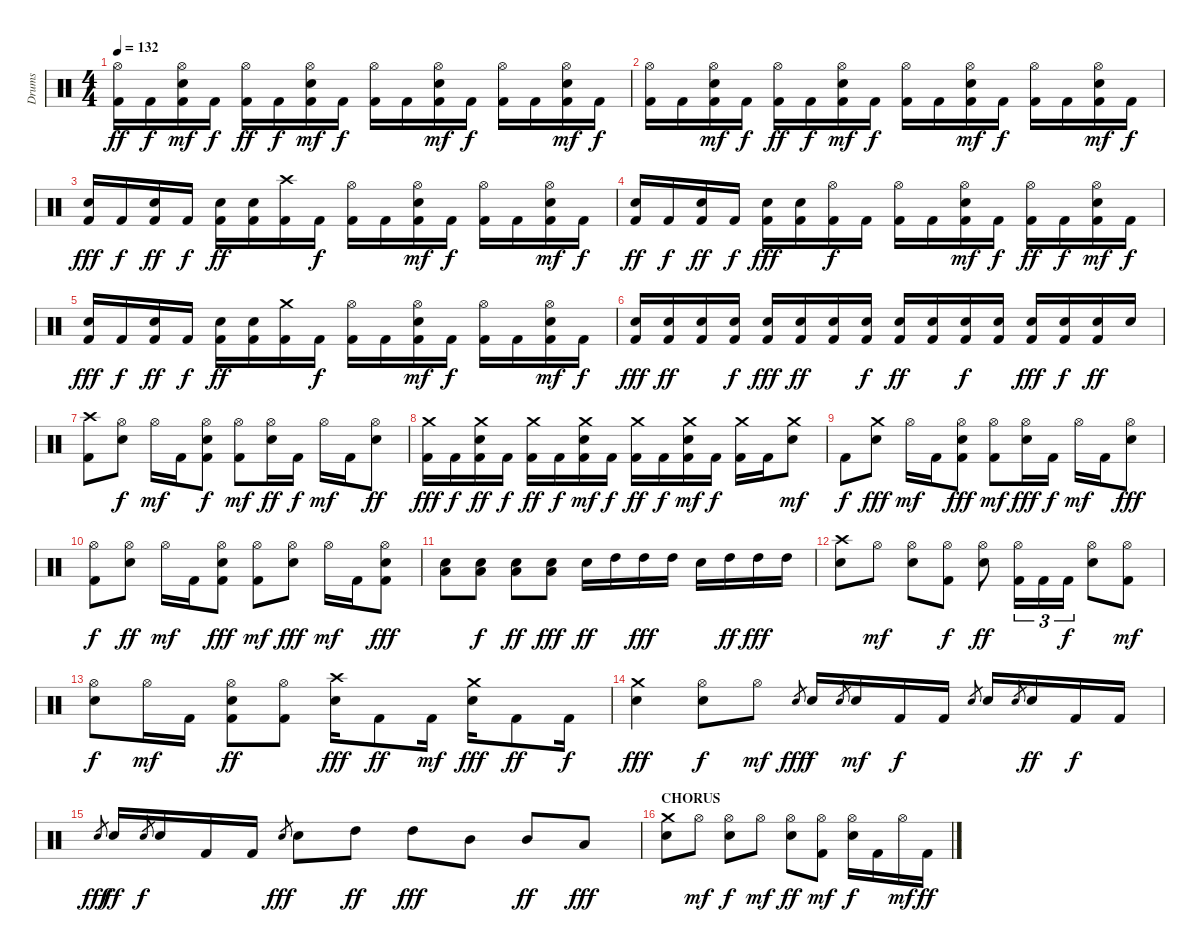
\track ("Drums" "Drums") {instrument percussion}
\staff {score}
\articulation defaults
\ts (4 4)
\tempo 132
\clef neutral
\ks c
("Hi-Hat (open)" "Kick (hit) 2").16{dy ff} "Kick (hit) 2".16{dy f} ("Hi-Hat (open)" "Electric Snare (hit)" "Kick (hit) 2").16{dy mf} "Kick (hit) 2".16{dy f} ("Hi-Hat (open)" "Kick (hit) 2").16{dy ff} "Kick (hit) 2".16{dy f} ("Hi-Hat (open)" "Electric Snare (hit)" "Kick (hit) 2").16{dy mf} "Kick (hit) 2".16{dy f} ("Hi-Hat (open)" "Kick (hit) 2").16 "Kick (hit) 2".16 ("Hi-Hat (open)" "Electric Snare (hit)" "Kick (hit) 2").16{dy mf} "Kick (hit) 2".16{dy f} ("Hi-Hat (open)" "Kick (hit) 2").16 "Kick (hit) 2".16 ("Hi-Hat (open)" "Electric Snare (hit)" "Kick (hit) 2").16{dy mf} "Kick (hit) 2".16{dy f} |
("Hi-Hat (open)" "Kick (hit) 2").16 "Kick (hit) 2".16 ("Hi-Hat (open)" "Electric Snare (hit)" "Kick (hit) 2").16{dy mf} "Kick (hit) 2".16{dy f} ("Hi-Hat (open)" "Kick (hit) 2").16{dy ff} "Kick (hit) 2".16{dy f} ("Hi-Hat (open)" "Electric Snare (hit)" "Kick (hit) 2").16{dy mf} "Kick (hit) 2".16{dy f} ("Hi-Hat (open)" "Kick (hit) 2").16 "Kick (hit) 2".16 ("Hi-Hat (open)" "Electric Snare (hit)" "Kick (hit) 2").16{dy mf} "Kick (hit) 2".16{dy f} ("Hi-Hat (open)" "Kick (hit) 2").16 "Kick (hit) 2".16 ("Hi-Hat (open)" "Electric Snare (hit)" "Kick (hit) 2").16{dy mf} "Kick (hit) 2".16{dy f} |
("Electric Snare (hit)" "Kick (hit) 2").16{dy fff} "Kick (hit) 2".16{dy f} ("Electric Snare (hit)" "Kick (hit) 2").16{dy ff} "Kick (hit) 2".16{dy f} ("Electric Snare (hit)" "Kick (hit) 2").16{dy ff} ("Electric Snare (hit)" "Kick (hit) 2").16 ("Crash high (hit)" "Kick (hit) 2").16 "Kick (hit) 2".16{dy f} ("Hi-Hat (open)" "Kick (hit) 2").16 "Kick (hit) 2".16 ("Hi-Hat (open)" "Electric Snare (hit)" "Kick (hit) 2").16{dy mf} "Kick (hit) 2".16{dy f} ("Hi-Hat (open)" "Kick (hit) 2").16 "Kick (hit) 2".16 ("Hi-Hat (open)" "Electric Snare (hit)" "Kick (hit) 2").16{dy mf} "Kick (hit) 2".16{dy f} |
("Electric Snare (hit)" "Kick (hit) 2").16{dy ff} "Kick (hit) 2".16{dy f} ("Electric Snare (hit)" "Kick (hit) 2").16{dy ff} "Kick (hit) 2".16{dy f} ("Electric Snare (hit)" "Kick (hit) 2").16{dy fff} ("Electric Snare (hit)" "Kick (hit) 2").16 ("Hi-Hat (open)" "Kick (hit) 2").16{dy f} "Kick (hit) 2".16 ("Hi-Hat (open)" "Kick (hit) 2").16 "Kick (hit) 2".16 ("Hi-Hat (open)" "Electric Snare (hit)" "Kick (hit) 2").16{dy mf} "Kick (hit) 2".16{dy f} ("Hi-Hat (open)" "Kick (hit) 2").16{dy ff} "Kick (hit) 2".16{dy f} ("Hi-Hat (open)" "Electric Snare (hit)" "Kick (hit) 2").16{dy mf} "Kick (hit) 2".16{dy f} |
("Electric Snare (hit)" "Kick (hit) 2").16{dy fff} "Kick (hit) 2".16{dy f} ("Electric Snare (hit)" "Kick (hit) 2").16{dy ff} "Kick (hit) 2".16{dy f} ("Electric Snare (hit)" "Kick (hit) 2").16{dy ff} ("Electric Snare (hit)" "Kick (hit) 2").16 ("Crash medium (hit)" "Kick (hit) 2").16 "Kick (hit) 2".16{dy f} ("Hi-Hat (open)" "Kick (hit) 2").16 "Kick (hit) 2".16 ("Hi-Hat (open)" "Electric Snare (hit)" "Kick (hit) 2").16{dy mf} "Kick (hit) 2".16{dy f} ("Hi-Hat (open)" "Kick (hit) 2").16 "Kick (hit) 2".16 ("Hi-Hat (open)" "Electric Snare (hit)" "Kick (hit) 2").16{dy mf} "Kick (hit) 2".16{dy f} |
("Electric Snare (hit)" "Kick (hit) 2").16{dy fff} ("Electric Snare (hit)" "Kick (hit) 2").16{dy ff} ("Electric Snare (hit)" "Kick (hit) 2").16 ("Electric Snare (hit)" "Kick (hit) 2").16{dy f} ("Electric Snare (hit)" "Kick (hit) 2").16{dy fff} ("Electric Snare (hit)" "Kick (hit) 2").16{dy ff} ("Electric Snare (hit)" "Kick (hit) 2").16 ("Electric Snare (hit)" "Kick (hit) 2").16{dy f} ("Electric Snare (hit)" "Kick (hit) 2").16{dy ff} ("Electric Snare (hit)" "Kick (hit) 2").16 ("Electric Snare (hit)" "Kick (hit) 2").16{dy f} ("Electric Snare (hit)" "Kick (hit) 2").16 ("Electric Snare (hit)" "Kick (hit) 2").16{dy fff} ("Electric Snare (hit)" "Kick (hit) 2").16{dy f} ("Electric Snare (hit)" "Kick (hit) 2").16{dy ff} "Electric Snare (hit)".16 |
("Crash high (hit)" "Kick (hit) 2").8 ("Hi-Hat (open)" "Electric Snare (hit)").8{dy f} "Hi-Hat (open)".16{dy mf} "Kick (hit) 2".16 ("Hi-Hat (open)" "Electric Snare (hit)" "Kick (hit) 2").8{dy f} ("Hi-Hat (open)" "Kick (hit) 2").8{dy mf} ("Hi-Hat (open)" "Electric Snare (hit)").16{dy ff} "Kick (hit) 2".16{dy f} "Hi-Hat (open)".16{dy mf} "Kick (hit) 2".16 ("Hi-Hat (open)" "Electric Snare (hit)").8{dy ff} |
("Crash medium (hit)" "Kick (hit) 2").16{dy fff} "Kick (hit) 2".16{dy f} ("Crash medium (hit)" "Electric Snare (hit)" "Kick (hit) 2").16{dy ff} "Kick (hit) 2".16{dy f} ("Crash medium (hit)" "Kick (hit) 2").16{dy ff} "Kick (hit) 2".16{dy f} ("Crash medium (hit)" "Electric Snare (hit)" "Kick (hit) 2").16{dy mf} "Kick (hit) 2".16{dy f} ("Crash medium (hit)" "Kick (hit) 2").16{dy ff} "Kick (hit) 2".16{dy f} ("Crash medium (hit)" "Electric Snare (hit)" "Kick (hit) 2").16{dy mf} "Kick (hit) 2".16{dy f} ("Crash medium (hit)" "Kick (hit) 2").16 "Kick (hit) 2".16 ("Crash medium (hit)" "Electric Snare (hit)").8{dy mf} |
"Kick (hit) 2".8{dy f} ("Crash medium (hit)" "Electric Snare (hit)").8{dy fff} "Hi-Hat (open)".16{dy mf} "Kick (hit) 2".16 ("Hi-Hat (open)" "Electric Snare (hit)" "Kick (hit) 2").8{dy fff} ("Hi-Hat (open)" "Kick (hit) 2").8{dy mf} ("Hi-Hat (open)" "Electric Snare (hit)").16{dy fff} "Kick (hit) 2".16{dy f} "Hi-Hat (open)".16{dy mf} "Kick (hit) 2".16 ("Hi-Hat (open)" "Electric Snare (hit)").8{dy fff} |
("Hi-Hat (open)" "Kick (hit) 2").8{dy f} ("Hi-Hat (open)" "Electric Snare (hit)").8{dy ff} "Hi-Hat (open)".16{dy mf} "Kick (hit) 2".16 ("Hi-Hat (open)" "Electric Snare (hit)" "Kick (hit) 2").8{dy fff} ("Hi-Hat (open)" "Kick (hit) 2").8{dy mf} ("Hi-Hat (open)" "Electric Snare (hit)").8{dy fff} "Hi-Hat (open)".16{dy mf} "Kick (hit) 2".16 ("Hi-Hat (open)" "Electric Snare (hit)" "Kick (hit) 2").8{dy fff} |
("Electric Snare (hit)" "Low Floor Tom (hit)").8 ("Electric Snare (hit)" "Low Floor Tom (hit)").8{dy f} ("Electric Snare (hit)" "Low Floor Tom (hit)").8{dy ff} ("Electric Snare (hit)" "Low Floor Tom (hit)").8{dy fff} "Electric Snare (hit)".16{dy ff} "High Tom (hit)".16 "High Tom (hit)".16{dy fff} "High Tom (hit)".16 "Electric Snare (hit)".16 "High Tom (hit)".16{dy ff} "High Tom (hit)".16{dy fff} "High Tom (hit)".16 |
("Crash high (hit)" "Electric Snare (hit)").8 "Hi-Hat (open)".8{dy mf} ("Hi-Hat (open)" "Electric Snare (hit)").8 ("Hi-Hat (open)" "Kick (hit) 2").8{dy f} ("Hi-Hat (open)" "Electric Snare (hit)").8{dy ff} ("Hi-Hat (open)" "Kick (hit) 2").16{tu (3 2)} "Kick (hit) 2".16{tu (3 2)} "Kick (hit) 2".16{tu (3 2) dy f} ("Hi-Hat (open)" "Electric Snare (hit)").8 ("Hi-Hat (open)" "Kick (hit) 2").8{dy mf} |
("Hi-Hat (open)" "Electric Snare (hit)").8{dy f} "Hi-Hat (open)".16{dy mf} "Kick (hit) 2".16 ("Hi-Hat (open)" "Electric Snare (hit)" "Kick (hit) 2").8{dy ff} ("Hi-Hat (open)" "Kick (hit) 2").8 ("Crash high (hit)" "Electric Snare (hit)").16{dy fff} "Kick (hit) 2".8{dy ff} "Kick (hit) 2".16{dy mf} ("Crash medium (hit)" "Electric Snare (hit)").16{dy fff} "Kick (hit) 2".8{dy ff} "Kick (hit) 2".16{dy f} |
("Crash medium (hit)" "Electric Snare (hit)").4{dy fff} ("Hi-Hat (open)" "Electric Snare (hit)").8{dy f} "Hi-Hat (open)".8{dy mf} "Electric Snare (hit)".8{gr dy fff} "Electric Snare (hit)".16{dy f} "Electric Snare (hit)"{sl}.8{gr} "Electric Snare (hit)".16{dy mf} "Kick (hit) 2".16{dy f} "Kick (hit) 2".16 "Electric Snare (hit)".8{gr} "Electric Snare (hit)".16 "Electric Snare (hit)".8{gr} "Electric Snare (hit)".16{dy ff} "Kick (hit) 2".16{dy f} "Kick (hit) 2".16 |
"Electric Snare (hit)".8{gr dy fff} "Electric Snare (hit)".16{dy ff} "Electric Snare (hit)".8{gr dy f} "Electric Snare (hit)".16 "Kick (hit) 2".16 "Kick (hit) 2".16 "Electric Snare (hit)"{sl}.8{gr dy fff} "Electric Snare (hit)".8 "High Tom (hit)".8{dy ff} "High Tom (hit)".8{dy fff} "Mid Tom (hit)".8 "Mid Tom (hit)".8{dy ff} "Low Tom (hit)".8{dy fff} |
\section ("" "CHORUS")
("Crash medium (hit)" "Electric Snare (hit)").8 "Hi-Hat (open)".8{dy mf} ("Hi-Hat (open)" "Electric Snare (hit)").8{dy f} "Hi-Hat (open)".8{dy mf} ("Hi-Hat (open)" "Electric Snare (hit)").8{dy ff} ("Hi-Hat (open)" "Kick (hit) 2").8{dy mf} ("Hi-Hat (open)" "Electric Snare (hit)").16{dy f} "Kick (hit) 2".16 "Hi-Hat (open)".16{dy mf} "Kick (hit) 2".16{dy ff}
